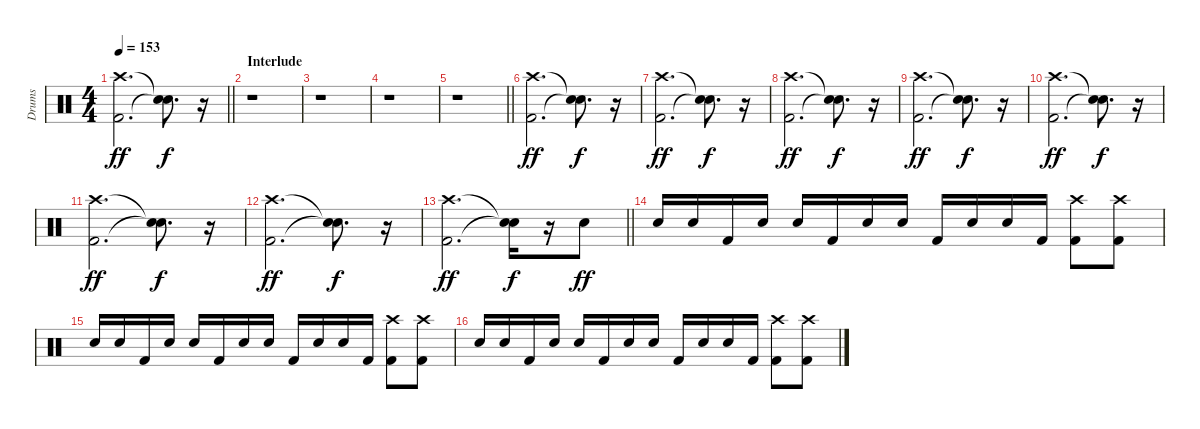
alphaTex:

\track ("Drums" "Drums") {instrument percussion}
\staff {score}
\articulation defaults
\ts (4 4)
\tempo 153
\clef neutral
\barLineRight lightlight
\ks c
("Kick (hit) 2" "Crash high (hit)").2{d dy ff} ("Snare (hit)"{t} "Snare (hit)"{t}).8{d dy f} r.16 |
\section ("" "Interlude")
r.1 |
r.1 |
r.1 |
\barLineRight lightlight
r.1 |
\section ("" "")
("Kick (hit) 2" "Crash high (hit)").2{d dy ff} ("Snare (hit)"{t} "Snare (hit)"{t}).8{d dy f} r.16 |
("Kick (hit) 2" "Crash high (hit)").2{d dy ff} ("Snare (hit)"{t} "Snare (hit)"{t}).8{d dy f} r.16 |
("Kick (hit) 2" "Crash high (hit)").2{d dy ff} ("Snare (hit)"{t} "Snare (hit)"{t}).8{d dy f} r.16 |
("Kick (hit) 2" "Crash high (hit)").2{d dy ff} ("Snare (hit)"{t} "Snare (hit)"{t}).8{d dy f} r.16 |
("Kick (hit) 2" "Crash high (hit)").2{d dy ff} ("Snare (hit)"{t} "Snare (hit)"{t}).8{d dy f} r.16 |
("Kick (hit) 2" "Crash high (hit)").2{d dy ff} ("Snare (hit)"{t} "Snare (hit)"{t}).8{d dy f} r.16 |
("Kick (hit) 2" "Crash high (hit)").2{d dy ff} ("Snare (hit)"{t} "Snare (hit)"{t}).8{d dy f} r.16 |
\barLineRight lightlight
("Kick (hit) 2" "Crash high (hit)").2{d dy ff} ("Snare (hit)"{t} "Snare (hit)"{t}).16{dy f} r.16 "Snare (hit) 2".8{dy ff} |
\section ("" "")
"Snare (hit) 2".16 "Snare (hit) 2".16 "Kick (hit) 2".16 "Snare (hit) 2".16 "Snare (hit) 2".16 "Kick (hit) 2".16 "Snare (hit) 2".16 "Snare (hit) 2".16 "Kick (hit) 2".16 "Snare (hit) 2".16 "Snare (hit) 2".16 "Kick (hit) 2".16 ("Kick (hit) 2" "Crash high (hit)").8 ("Kick (hit) 2" "Crash high (hit)").8 |
"Snare (hit) 2".16 "Snare (hit) 2".16 "Kick (hit) 2".16 "Snare (hit) 2".16 "Snare (hit) 2".16 "Kick (hit) 2".16 "Snare (hit) 2".16 "Snare (hit) 2".16 "Kick (hit) 2".16 "Snare (hit) 2".16 "Snare (hit) 2".16 "Kick (hit) 2".16 ("Kick (hit) 2" "Crash high (hit)").8 ("Kick (hit) 2" "Crash high (hit)").8 |
"Snare (hit) 2".16 "Snare (hit) 2".16 "Kick (hit) 2".16 "Snare (hit) 2".16 "Snare (hit) 2".16 "Kick (hit) 2".16 "Snare (hit) 2".16 "Snare (hit) 2".16 "Kick (hit) 2".16 "Snare (hit) 2".16 "Snare (hit) 2".16 "Kick (hit) 2".16 ("Kick (hit) 2" "Crash high (hit)").8 ("Kick (hit) 2" "Crash high (hit)").8
